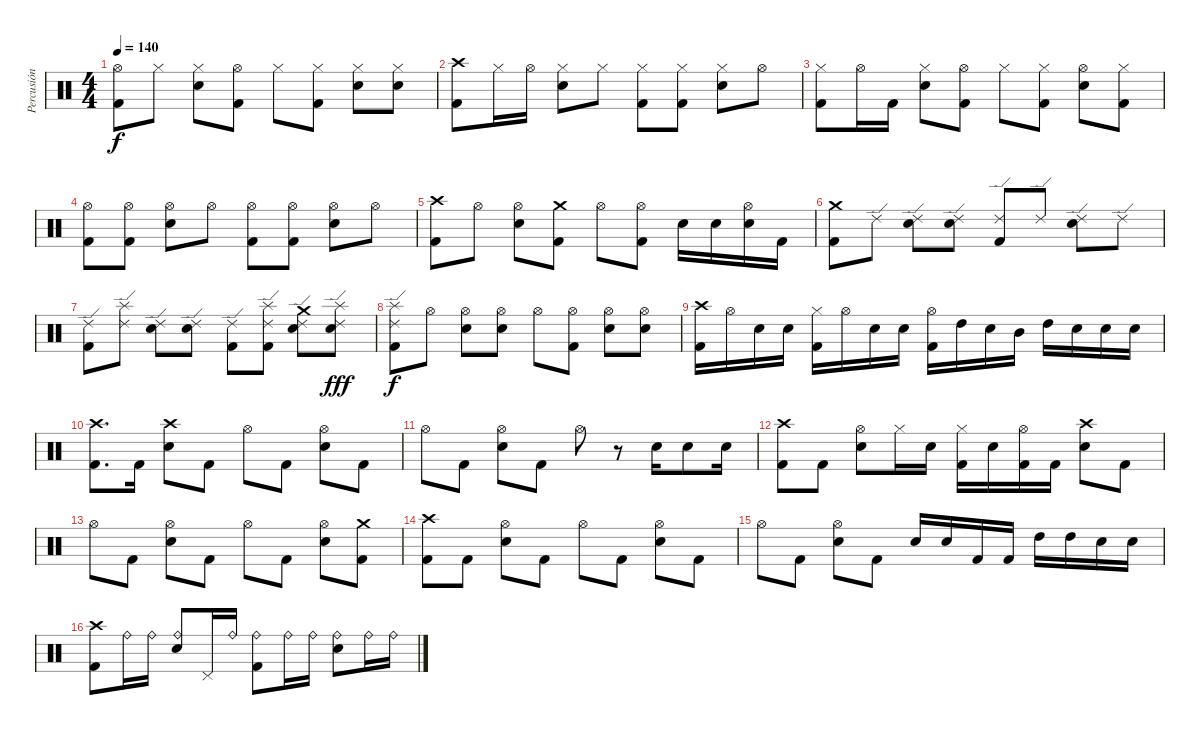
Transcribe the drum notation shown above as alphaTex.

\track ("Percusión" "Percusión") {instrument percussion}
\staff {score}
\articulation defaults
\ts (4 4)
\tempo 140
\clef neutral
\ks c
("Hi-Hat (open)" "Kick (hit) 2").8{dy f} "Hi-Hat (closed)".8 ("Hi-Hat (closed)" "Snare (hit) 2").8 ("Hi-Hat (open)" "Kick (hit) 2").8 "Hi-Hat (closed)".8 ("Hi-Hat (closed)" "Kick (hit) 2").8 ("Hi-Hat (closed)" "Snare (hit) 2").8 ("Hi-Hat (closed)" "Snare (hit) 2").8 |
("Crash high (hit)" "Kick (hit) 2").8 "Hi-Hat (closed)".16 "Hi-Hat (open)".16 ("Hi-Hat (closed)" "Snare (hit) 2").8 "Hi-Hat (closed)".8 ("Hi-Hat (closed)" "Kick (hit) 2").8 ("Hi-Hat (closed)" "Kick (hit) 2").8 ("Hi-Hat (closed)" "Snare (hit) 2").8 "Hi-Hat (open)".8 |
("Hi-Hat (closed)" "Kick (hit) 2").8 "Hi-Hat (open)".16 "Kick (hit) 2".16 ("Hi-Hat (closed)" "Snare (hit) 2").8 ("Hi-Hat (open)" "Kick (hit) 2").8 "Hi-Hat (closed)".8 ("Hi-Hat (closed)" "Kick (hit) 2").8 ("Hi-Hat (open)" "Snare (hit) 2").8 ("Hi-Hat (closed)" "Kick (hit) 2").8 |
("Hi-Hat (open)" "Kick (hit) 2").8 ("Hi-Hat (open)" "Kick (hit) 2").8 ("Hi-Hat (open)" "Snare (hit) 2").8 "Hi-Hat (open)".8 ("Hi-Hat (open)" "Kick (hit) 2").8 ("Hi-Hat (open)" "Kick (hit) 2").8 ("Hi-Hat (open)" "Snare (hit) 2").8 "Hi-Hat (open)".8 |
("Crash high (hit)" "Kick (hit) 2").8 "Hi-Hat (open)".8 ("Hi-Hat (open)" "Snare (hit) 2").8 ("Crash medium (hit)" "Kick (hit) 2").8 "Hi-Hat (open)".8 ("Hi-Hat (open)" "Kick (hit) 2").8 "Snare (hit) 2".16 "Snare (hit) 2".16 ("Hi-Hat (open)" "Snare (hit) 2").16 "Kick (hit) 2".16 |
("Crash medium (hit)" "Kick (hit) 2").8 "Ride (edge) 2".8 ("Ride (edge) 2" "Snare (hit) 2").8 ("Ride (edge) 2" "Snare (hit) 2").8 ("Ride (edge) 2" "Kick (hit) 2").8 "Ride (edge) 2".8 ("Ride (edge) 2" "Snare (hit) 2").8 "Ride (edge) 2".8 |
("Ride (edge) 2" "Kick (hit) 2").8 ("Splash (hit)" "Ride (edge) 2").8 ("Ride (edge) 2" "Snare (hit) 2").8 ("Ride (edge) 2" "Snare (hit) 2").8 ("Ride (edge) 2" "Kick (hit) 2").8 ("Splash (hit)" "Ride (edge) 2" "Kick (hit) 2").8 ("Crash medium (hit)" "Ride (edge) 2" "Snare (hit) 2").8 ("Splash (hit)" "Ride (edge) 2" "Snare (hit) 2").8{dy fff} |
("Splash (hit)" "Ride (edge) 2" "Kick (hit) 2").8{dy f} "Hi-Hat (open)".8 ("Hi-Hat (open)" "Snare (hit) 2").8 ("Hi-Hat (open)" "Snare (hit) 2").8 "Hi-Hat (open)".8 ("Hi-Hat (open)" "Kick (hit) 2").8 ("Hi-Hat (open)" "Snare (hit) 2").8 ("Hi-Hat (open)" "Snare (hit) 2").8 |
("Crash high (hit)" "Kick (hit) 2").16 "Hi-Hat (open)".16 "Snare (hit) 2".16 "Snare (hit) 2".16 ("Hi-Hat (closed)" "Kick (hit) 2").16 "Hi-Hat (open)".16 "Snare (hit) 2".16 "Snare (hit) 2".16 ("Hi-Hat (open)" "Kick (hit) 2").16 "High Tom (hit)".16 "Snare (hit) 2".16 "Mid Tom (hit)".16 "High Tom (hit)".16 "Snare (hit) 2".16 "Snare (hit) 2".16 "Snare (hit) 2".16 |
("Crash high (hit)" "Kick (hit) 2").8{d} "Kick (hit) 2".16 ("Crash high (hit)" "Snare (hit) 2").8 "Kick (hit) 2".8 "Hi-Hat (open)".8 "Kick (hit) 2".8 ("Hi-Hat (open)" "Snare (hit) 2").8 "Kick (hit) 2".8 |
"Hi-Hat (open)".8 "Kick (hit) 2".8 ("Hi-Hat (open)" "Snare (hit) 2").8 "Kick (hit) 2".8 "Hi-Hat (open)".8 r.8 "Snare (hit) 2".16 "Snare (hit) 2".8 "Snare (hit) 2".16 |
("Crash high (hit)" "Kick (hit) 2").8 "Kick (hit) 2".8 ("Hi-Hat (open)" "Snare (hit) 2").8 "Hi-Hat (closed)".16 "Snare (hit) 2".16 ("Hi-Hat (closed)" "Kick (hit) 2").16 "Snare (hit) 2".16 ("Hi-Hat (open)" "Kick (hit) 2").16 "Kick (hit) 2".16 ("Crash high (hit)" "Snare (hit) 2").8 "Kick (hit) 2".8 |
"Hi-Hat (open)".8 "Kick (hit) 2".8 ("Hi-Hat (open)" "Snare (hit) 2").8 "Kick (hit) 2".8 "Hi-Hat (open)".8 "Kick (hit) 2".8 ("Hi-Hat (open)" "Snare (hit) 2").8 ("Crash medium (hit)" "Kick (hit) 2").8 |
("Crash high (hit)" "Kick (hit) 2").8 "Kick (hit) 2".8 ("Hi-Hat (open)" "Snare (hit) 2").8 "Kick (hit) 2".8 "Hi-Hat (open)".8 "Kick (hit) 2".8 ("Hi-Hat (open)" "Snare (hit) 2").8 "Kick (hit) 2".8 |
"Hi-Hat (open)".8 "Kick (hit) 2".8 ("Hi-Hat (open)" "Snare (hit) 2").8 "Kick (hit) 2".8 "Snare (hit) 2".16 "Snare (hit) 2".16 "Kick (hit) 2".16 "Kick (hit) 2".16 "High Tom (hit)".16 "High Tom (hit)".16 "Snare (hit) 2".16 "Snare (hit) 2".16 |
("Crash high (hit)" "Kick (hit) 2").8 "Ride (bell)".16 "Ride (bell)".16 ("Ride (bell)" "Snare (hit) 2").8 "Pedal Hi-Hat (hit)".16 "Ride (bell)".16 ("Ride (bell)" "Kick (hit) 2").8 "Ride (bell)".16 "Ride (bell)".16 ("Ride (bell)" "Snare (hit) 2").8 "Ride (bell)".16 "Ride (bell)".16
